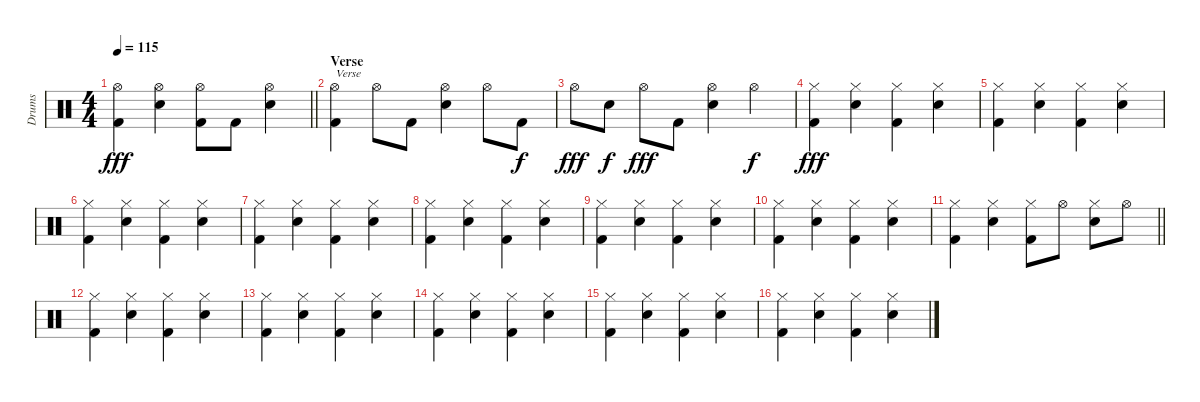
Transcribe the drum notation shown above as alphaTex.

\track ("Drums" "Drums") {instrument percussion}
\staff {score}
\articulation defaults
\ts (4 4)
\tempo 115
\clef neutral
\barLineRight lightlight
\ks c
("Hi-Hat (open)" "Kick (hit) 2").4{dy fff} ("Hi-Hat (open)" "Snare (hit) 2").4 ("Hi-Hat (open)" "Kick (hit) 2").8 "Kick (hit) 2".8 ("Hi-Hat (open)" "Snare (hit) 2").4 |
\section ("" "Verse")
("Hi-Hat (open)" "Kick (hit) 2").4{txt "Verse"} "Hi-Hat (open)".8 "Kick (hit) 2".8 ("Hi-Hat (open)" "Snare (hit) 2").4 "Hi-Hat (open)".8 "Kick (hit) 2".8{dy f} |
"Hi-Hat (open)".8{dy fff} "Snare (hit) 2".8{dy f} "Hi-Hat (open)".8{dy fff} "Kick (hit) 2".8 ("Hi-Hat (open)" "Snare (hit) 2").4 "Hi-Hat (open)".4{dy f} |
("Hi-Hat (closed)" "Kick (hit) 2").4{dy fff} ("Hi-Hat (closed)" "Snare (hit) 2").4 ("Hi-Hat (closed)" "Kick (hit) 2").4 ("Hi-Hat (closed)" "Snare (hit) 2").4 |
("Hi-Hat (closed)" "Kick (hit) 2").4 ("Hi-Hat (closed)" "Snare (hit) 2").4 ("Hi-Hat (closed)" "Kick (hit) 2").4 ("Hi-Hat (closed)" "Snare (hit) 2").4 |
("Hi-Hat (closed)" "Kick (hit) 2").4 ("Hi-Hat (closed)" "Snare (hit) 2").4 ("Hi-Hat (closed)" "Kick (hit) 2").4 ("Hi-Hat (closed)" "Snare (hit) 2").4 |
("Hi-Hat (closed)" "Kick (hit) 2").4 ("Hi-Hat (closed)" "Snare (hit) 2").4 ("Hi-Hat (closed)" "Kick (hit) 2").4 ("Hi-Hat (closed)" "Snare (hit) 2").4 |
("Hi-Hat (closed)" "Kick (hit) 2").4 ("Hi-Hat (closed)" "Snare (hit) 2").4 ("Hi-Hat (closed)" "Kick (hit) 2").4 ("Hi-Hat (closed)" "Snare (hit) 2").4 |
("Hi-Hat (closed)" "Kick (hit) 2").4 ("Hi-Hat (closed)" "Snare (hit) 2").4 ("Hi-Hat (closed)" "Kick (hit) 2").4 ("Hi-Hat (closed)" "Snare (hit) 2").4 |
("Hi-Hat (closed)" "Kick (hit) 2").4 ("Hi-Hat (closed)" "Snare (hit) 2").4 ("Hi-Hat (closed)" "Kick (hit) 2").4 ("Hi-Hat (closed)" "Snare (hit) 2").4 |
\barLineRight lightlight
("Hi-Hat (closed)" "Kick (hit) 2").4 ("Hi-Hat (closed)" "Snare (hit) 2").4 ("Hi-Hat (closed)" "Kick (hit) 2").8 "Hi-Hat (open)".8 ("Hi-Hat (closed)" "Snare (hit) 2").8 "Hi-Hat (open)".8 |
("Hi-Hat (closed)" "Kick (hit) 2").4 ("Hi-Hat (closed)" "Snare (hit) 2").4 ("Hi-Hat (closed)" "Kick (hit) 2").4 ("Hi-Hat (closed)" "Snare (hit) 2").4 |
("Hi-Hat (closed)" "Kick (hit) 2").4 ("Hi-Hat (closed)" "Snare (hit) 2").4 ("Hi-Hat (closed)" "Kick (hit) 2").4 ("Hi-Hat (closed)" "Snare (hit) 2").4 |
("Hi-Hat (closed)" "Kick (hit) 2").4 ("Hi-Hat (closed)" "Snare (hit) 2").4 ("Hi-Hat (closed)" "Kick (hit) 2").4 ("Hi-Hat (closed)" "Snare (hit) 2").4 |
("Hi-Hat (closed)" "Kick (hit) 2").4 ("Hi-Hat (closed)" "Snare (hit) 2").4 ("Hi-Hat (closed)" "Kick (hit) 2").4 ("Hi-Hat (closed)" "Snare (hit) 2").4 |
("Hi-Hat (closed)" "Kick (hit) 2").4 ("Hi-Hat (closed)" "Snare (hit) 2").4 ("Hi-Hat (closed)" "Kick (hit) 2").4 ("Hi-Hat (closed)" "Snare (hit) 2").4
